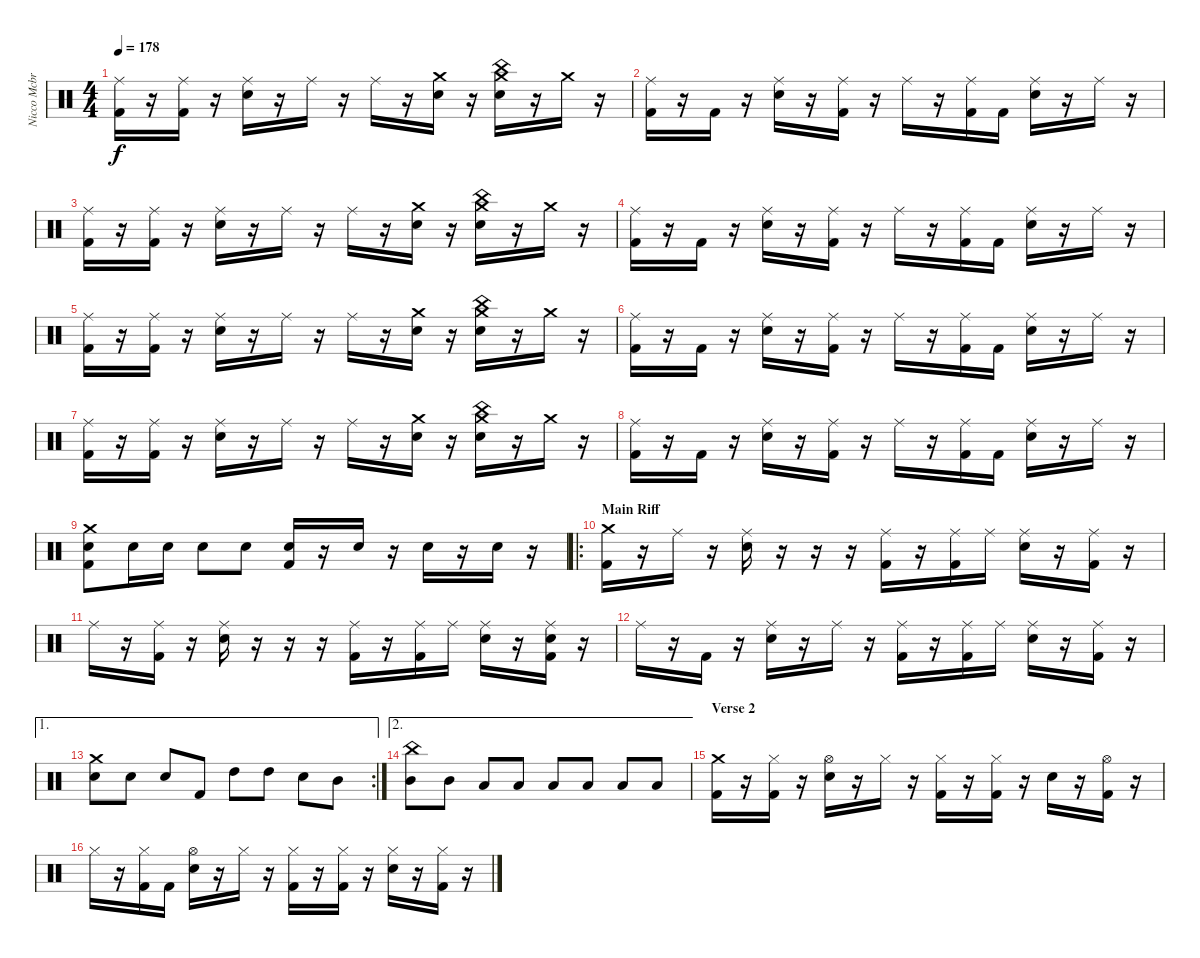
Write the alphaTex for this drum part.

\track ("Nicco Mcbrian - Drums" "Nicco Mcbr") {instrument percussion}
\staff {score}
\articulation defaults
\ts (4 4)
\tempo 178
\clef neutral
\ks c
("Ride (middle)" "Kick (hit) 2").16{dy f} r.16 ("Ride (middle)" "Kick (hit) 2").16 r.16 ("Ride (middle)" "Snare (hit) 2").16 r.16 "Ride (middle)".16 r.16 "Ride (middle)".16 r.16 ("Crash medium (hit)" "Snare (hit) 2").16 r.16 ("Crash medium (hit)" "China (hit)" "Snare (hit) 2").16 r.16 "Crash medium (hit)".16 r.16 |
("Ride (middle)" "Kick (hit) 2").16 r.16 "Kick (hit) 2".16 r.16 ("Ride (middle)" "Snare (hit) 2").16 r.16 ("Ride (middle)" "Kick (hit) 2").16 r.16 "Ride (middle)".16 r.16 ("Ride (middle)" "Kick (hit) 2").16 "Kick (hit) 2".16 ("Ride (middle)" "Snare (hit) 2").16 r.16 "Ride (middle)".16 r.16 |
("Ride (middle)" "Kick (hit) 2").16 r.16 ("Ride (middle)" "Kick (hit) 2").16 r.16 ("Ride (middle)" "Snare (hit) 2").16 r.16 "Ride (middle)".16 r.16 "Ride (middle)".16 r.16 ("Crash medium (hit)" "Snare (hit) 2").16 r.16 ("Crash medium (hit)" "China (hit)" "Snare (hit) 2").16 r.16 "Crash medium (hit)".16 r.16 |
("Ride (middle)" "Kick (hit) 2").16 r.16 "Kick (hit) 2".16 r.16 ("Ride (middle)" "Snare (hit) 2").16 r.16 ("Ride (middle)" "Kick (hit) 2").16 r.16 "Ride (middle)".16 r.16 ("Ride (middle)" "Kick (hit) 2").16 "Kick (hit) 2".16 ("Ride (middle)" "Snare (hit) 2").16 r.16 "Ride (middle)".16 r.16 |
("Ride (middle)" "Kick (hit) 2").16 r.16 ("Ride (middle)" "Kick (hit) 2").16 r.16 ("Ride (middle)" "Snare (hit) 2").16 r.16 "Ride (middle)".16 r.16 "Ride (middle)".16 r.16 ("Crash medium (hit)" "Snare (hit) 2").16 r.16 ("Crash medium (hit)" "China (hit)" "Snare (hit) 2").16 r.16 "Crash medium (hit)".16 r.16 |
("Ride (middle)" "Kick (hit) 2").16 r.16 "Kick (hit) 2".16 r.16 ("Ride (middle)" "Snare (hit) 2").16 r.16 ("Ride (middle)" "Kick (hit) 2").16 r.16 "Ride (middle)".16 r.16 ("Ride (middle)" "Kick (hit) 2").16 "Kick (hit) 2".16 ("Ride (middle)" "Snare (hit) 2").16 r.16 "Ride (middle)".16 r.16 |
("Ride (middle)" "Kick (hit) 2").16 r.16 ("Ride (middle)" "Kick (hit) 2").16 r.16 ("Ride (middle)" "Snare (hit) 2").16 r.16 "Ride (middle)".16 r.16 "Ride (middle)".16 r.16 ("Crash medium (hit)" "Snare (hit) 2").16 r.16 ("Crash medium (hit)" "China (hit)" "Snare (hit) 2").16 r.16 "Crash medium (hit)".16 r.16 |
("Ride (middle)" "Kick (hit) 2").16 r.16 "Kick (hit) 2".16 r.16 ("Ride (middle)" "Snare (hit) 2").16 r.16 ("Ride (middle)" "Kick (hit) 2").16 r.16 "Ride (middle)".16 r.16 ("Ride (middle)" "Kick (hit) 2").16 "Kick (hit) 2".16 ("Ride (middle)" "Snare (hit) 2").16 r.16 "Ride (middle)".16 r.16 |
("Crash medium (hit)" "Snare (hit) 2" "Kick (hit) 2").8 "Snare (hit) 2".16 "Snare (hit) 2".16 "Snare (hit) 2".8 "Snare (hit) 2".8 ("Snare (hit) 2" "Kick (hit) 2").16 r.16 "Snare (hit) 2".16 r.16 "Snare (hit) 2".16 r.16 "Snare (hit) 2".16 r.16 |
\ro
\section ("" "Main Riff")
("Crash medium (hit)" "Kick (hit) 2").16 r.16 "Ride (middle)".16 r.16 ("Ride (middle)" "Snare (hit) 2").16 r.16 r.16 r.16 ("Ride (middle)" "Kick (hit) 2").16 r.16 ("Ride (middle)" "Kick (hit) 2").16 "Ride (middle)".16 ("Ride (middle)" "Snare (hit) 2").16 r.16 ("Ride (middle)" "Kick (hit) 2").16 r.16 |
"Ride (middle)".16 r.16 ("Ride (middle)" "Kick (hit) 2").16 r.16 ("Ride (middle)" "Snare (hit) 2").16 r.16 r.16 r.16 ("Ride (middle)" "Kick (hit) 2").16 r.16 ("Ride (middle)" "Kick (hit) 2").16 "Ride (middle)".16 ("Ride (middle)" "Snare (hit) 2").16 r.16 ("Ride (middle)" "Snare (hit) 2" "Kick (hit) 2").16 r.16 |
"Ride (middle)".16 r.16 "Kick (hit) 2".16 r.16 ("Ride (middle)" "Snare (hit) 2").16 r.16 "Ride (middle)".16 r.16 ("Ride (middle)" "Kick (hit) 2").16 r.16 ("Ride (middle)" "Kick (hit) 2").16 "Ride (middle)".16 ("Ride (middle)" "Snare (hit) 2").16 r.16 ("Ride (middle)" "Kick (hit) 2").16 r.16 |
\ae 1
\rc 2
("Crash medium (hit)" "Snare (hit) 2").8 "Snare (hit) 2".8 "Snare (hit) 2".8 "Kick (hit) 2".8 "High Tom (hit)".8 "High Tom (hit)".8 "Snare (hit) 2".8 "Mid Tom (hit)".8 |
\ae 2
("China (hit)" "Mid Tom (hit)").8 "Mid Tom (hit)".8 "Low Tom (hit)".8 "Low Tom (hit)".8 "Low Tom (hit)".8 "Low Tom (hit)".8 "Low Tom (hit)".8 "Low Tom (hit)".8 |
\section ("" "Verse 2")
("Crash medium (hit)" "Kick (hit) 2").16 r.16 ("Hi-Hat (closed)" "Kick (hit) 2").16 r.16 ("Hi-Hat (open)" "Snare (hit) 2").16 r.16 "Hi-Hat (closed)".16 r.16 ("Hi-Hat (closed)" "Kick (hit) 2").16 r.16 ("Hi-Hat (closed)" "Kick (hit) 2").16 r.16 "Snare (hit) 2".16 r.16 ("Hi-Hat (open)" "Kick (hit) 2").16 r.16 |
"Hi-Hat (closed)".16 r.16 ("Hi-Hat (closed)" "Kick (hit) 2").16 "Kick (hit) 2".16 ("Hi-Hat (open)" "Snare (hit) 2").16 r.16 "Hi-Hat (closed)".16 r.16 ("Hi-Hat (closed)" "Kick (hit) 2").16 r.16 ("Hi-Hat (closed)" "Kick (hit) 2").16 r.16 ("Hi-Hat (closed)" "Snare (hit) 2").16 r.16 ("Hi-Hat (closed)" "Kick (hit) 2").16 r.16
